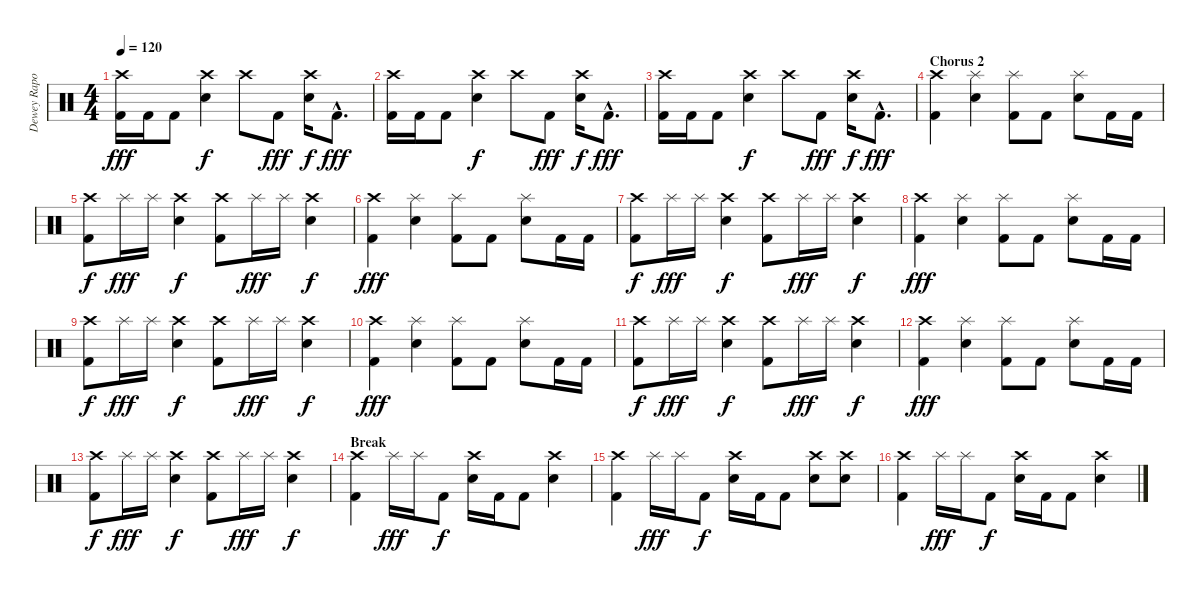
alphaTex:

\track ("Dewey Raposo" "Dewey Rapo") {instrument percussion}
\staff {score}
\articulation defaults
\ts (4 4)
\tempo 120
\clef neutral
\ks c
("Crash high (hit)" "Kick (hit) 2").16{dy fff} "Kick (hit) 2".16 "Kick (hit) 2".8 ("Crash high (hit)" "Electric Snare (hit)").4{dy f} "Crash high (hit)".8 "Kick (hit) 2".8{dy fff} ("Crash high (hit)" "Electric Snare (hit)").16{dy f} "Kick (hit) 2"{hac}.8{d dy fff} |
("Crash high (hit)" "Kick (hit) 2").16 "Kick (hit) 2".16 "Kick (hit) 2".8 ("Crash high (hit)" "Electric Snare (hit)").4{dy f} "Crash high (hit)".8 "Kick (hit) 2".8{dy fff} ("Crash high (hit)" "Electric Snare (hit)").16{dy f} "Kick (hit) 2"{hac}.8{d dy fff} |
("Crash high (hit)" "Kick (hit) 2").16 "Kick (hit) 2".16 "Kick (hit) 2".8 ("Crash high (hit)" "Electric Snare (hit)").4{dy f} "Crash high (hit)".8 "Kick (hit) 2".8{dy fff} ("Crash high (hit)" "Electric Snare (hit)").16{dy f} "Kick (hit) 2"{hac}.8{d dy fff} |
\section ("" "Chorus 2")
("Crash high (hit)" "Kick (hit) 2").4 ("Splash (hit)" "Electric Snare (hit)").4 ("Splash (hit)" "Kick (hit) 2").8 "Kick (hit) 2".8 ("Splash (hit)" "Electric Snare (hit)").8 "Kick (hit) 2".16 "Kick (hit) 2".16 |
("Crash high (hit)" "Kick (hit) 2").8{dy f} "Splash (hit)".16{dy fff} "Splash (hit)".16 ("Crash high (hit)" "Electric Snare (hit)").4{dy f} ("Crash high (hit)" "Kick (hit) 2").8 "Splash (hit)".16{dy fff} "Splash (hit)".16 ("Crash high (hit)" "Electric Snare (hit)").4{dy f} |
("Crash high (hit)" "Kick (hit) 2").4{dy fff} ("Splash (hit)" "Electric Snare (hit)").4 ("Splash (hit)" "Kick (hit) 2").8 "Kick (hit) 2".8 ("Splash (hit)" "Electric Snare (hit)").8 "Kick (hit) 2".16 "Kick (hit) 2".16 |
("Crash high (hit)" "Kick (hit) 2").8{dy f} "Splash (hit)".16{dy fff} "Splash (hit)".16 ("Crash high (hit)" "Electric Snare (hit)").4{dy f} ("Crash high (hit)" "Kick (hit) 2").8 "Splash (hit)".16{dy fff} "Splash (hit)".16 ("Crash high (hit)" "Electric Snare (hit)").4{dy f} |
("Crash high (hit)" "Kick (hit) 2").4{dy fff} ("Splash (hit)" "Electric Snare (hit)").4 ("Splash (hit)" "Kick (hit) 2").8 "Kick (hit) 2".8 ("Splash (hit)" "Electric Snare (hit)").8 "Kick (hit) 2".16 "Kick (hit) 2".16 |
("Crash high (hit)" "Kick (hit) 2").8{dy f} "Splash (hit)".16{dy fff} "Splash (hit)".16 ("Crash high (hit)" "Electric Snare (hit)").4{dy f} ("Crash high (hit)" "Kick (hit) 2").8 "Splash (hit)".16{dy fff} "Splash (hit)".16 ("Crash high (hit)" "Electric Snare (hit)").4{dy f} |
("Crash high (hit)" "Kick (hit) 2").4{dy fff} ("Splash (hit)" "Electric Snare (hit)").4 ("Splash (hit)" "Kick (hit) 2").8 "Kick (hit) 2".8 ("Splash (hit)" "Electric Snare (hit)").8 "Kick (hit) 2".16 "Kick (hit) 2".16 |
("Crash high (hit)" "Kick (hit) 2").8{dy f} "Splash (hit)".16{dy fff} "Splash (hit)".16 ("Crash high (hit)" "Electric Snare (hit)").4{dy f} ("Crash high (hit)" "Kick (hit) 2").8 "Splash (hit)".16{dy fff} "Splash (hit)".16 ("Crash high (hit)" "Electric Snare (hit)").4{dy f} |
("Crash high (hit)" "Kick (hit) 2").4{dy fff} ("Splash (hit)" "Electric Snare (hit)").4 ("Splash (hit)" "Kick (hit) 2").8 "Kick (hit) 2".8 ("Splash (hit)" "Electric Snare (hit)").8 "Kick (hit) 2".16 "Kick (hit) 2".16 |
("Crash high (hit)" "Kick (hit) 2").8{dy f} "Splash (hit)".16{dy fff} "Splash (hit)".16 ("Crash high (hit)" "Electric Snare (hit)").4{dy f} ("Crash high (hit)" "Kick (hit) 2").8 "Splash (hit)".16{dy fff} "Splash (hit)".16 ("Crash high (hit)" "Electric Snare (hit)").4{dy f} |
\section ("" "Break")
("Crash high (hit)" "Kick (hit) 2").4 "Splash (hit)".16{dy fff} "Splash (hit)".16 "Kick (hit) 2".8{dy f} ("Crash high (hit)" "Electric Snare (hit)").16 "Kick (hit) 2".16 "Kick (hit) 2".8 ("Crash high (hit)" "Electric Snare (hit)").4 |
("Crash high (hit)" "Kick (hit) 2").4 "Splash (hit)".16{dy fff} "Splash (hit)".16 "Kick (hit) 2".8{dy f} ("Crash high (hit)" "Electric Snare (hit)").16 "Kick (hit) 2".16 "Kick (hit) 2".8 ("Crash high (hit)" "Electric Snare (hit)").8 ("Crash high (hit)" "Electric Snare (hit)").8 |
("Crash high (hit)" "Kick (hit) 2").4 "Splash (hit)".16{dy fff} "Splash (hit)".16 "Kick (hit) 2".8{dy f} ("Crash high (hit)" "Electric Snare (hit)").16 "Kick (hit) 2".16 "Kick (hit) 2".8 ("Crash high (hit)" "Electric Snare (hit)").4
